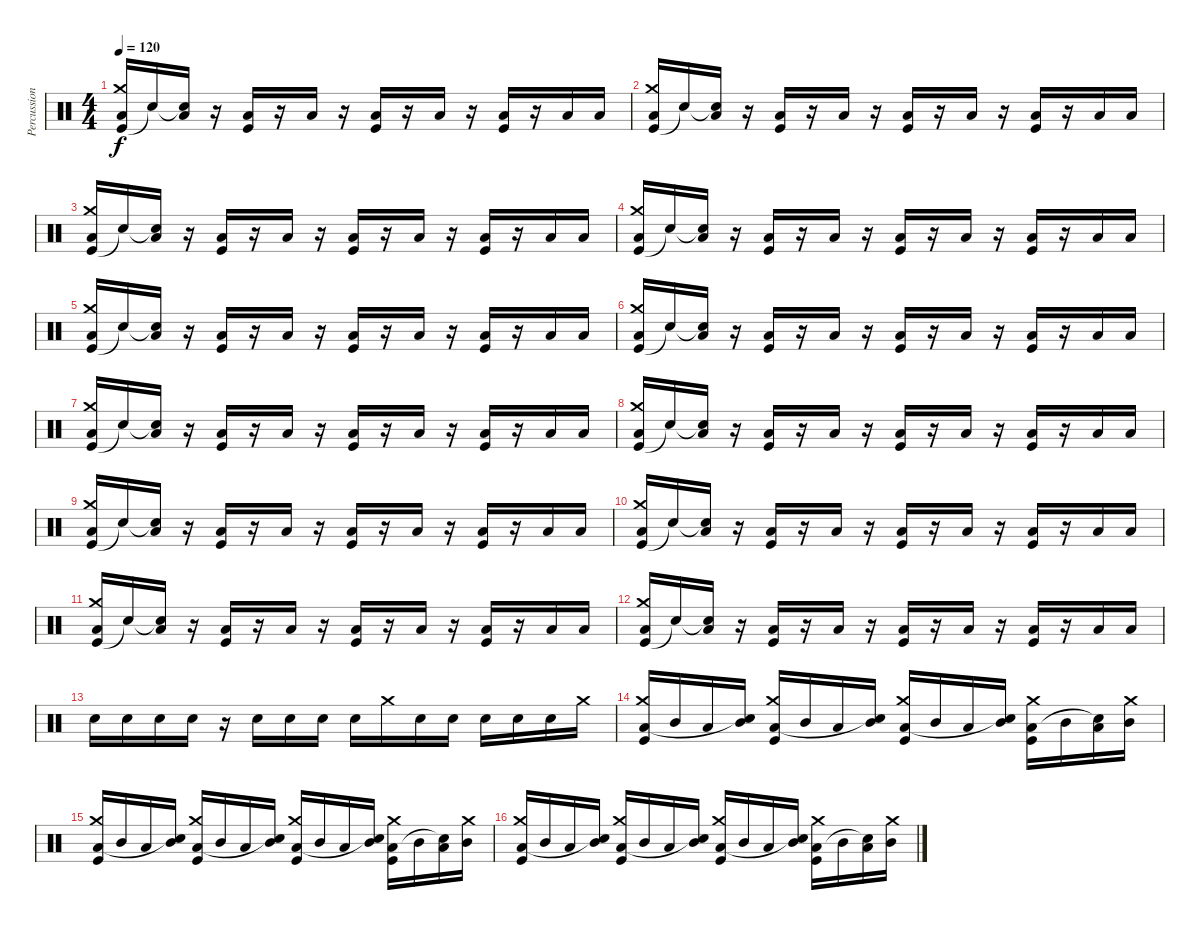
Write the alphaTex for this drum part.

\track ("Percussion" "Percussion") {instrument percussion}
\staff {score}
\articulation defaults
\ts (4 4)
\tempo 120
\clef neutral
\ks c
("Kick (hit)" "Crash medium (hit)" "Low Tom (hit)").16{dy f} "Snare (hit)"{t}.16 ("Snare (hit)"{t} "Low Tom (hit)").16 r.16 ("Kick (hit)" "Low Tom (hit)").16 r.16 "Low Tom (hit)".16 r.16 ("Kick (hit)" "Low Tom (hit)").16 r.16 "Low Tom (hit)".16 r.16 ("Kick (hit)" "Low Tom (hit)").16 r.16 "Low Tom (hit)".16 "Low Tom (hit)".16 |
("Kick (hit)" "Crash medium (hit)" "Low Tom (hit)").16 "Snare (hit)"{t}.16 ("Snare (hit)"{t} "Low Tom (hit)").16 r.16 ("Kick (hit)" "Low Tom (hit)").16 r.16 "Low Tom (hit)".16 r.16 ("Kick (hit)" "Low Tom (hit)").16 r.16 "Low Tom (hit)".16 r.16 ("Kick (hit)" "Low Tom (hit)").16 r.16 "Low Tom (hit)".16 "Low Tom (hit)".16 |
("Kick (hit)" "Crash medium (hit)" "Low Tom (hit)").16 "Snare (hit)"{t}.16 ("Snare (hit)"{t} "Low Tom (hit)").16 r.16 ("Kick (hit)" "Low Tom (hit)").16 r.16 "Low Tom (hit)".16 r.16 ("Kick (hit)" "Low Tom (hit)").16 r.16 "Low Tom (hit)".16 r.16 ("Kick (hit)" "Low Tom (hit)").16 r.16 "Low Tom (hit)".16 "Low Tom (hit)".16 |
("Kick (hit)" "Crash medium (hit)" "Low Tom (hit)").16 "Snare (hit)"{t}.16 ("Snare (hit)"{t} "Low Tom (hit)").16 r.16 ("Kick (hit)" "Low Tom (hit)").16 r.16 "Low Tom (hit)".16 r.16 ("Kick (hit)" "Low Tom (hit)").16 r.16 "Low Tom (hit)".16 r.16 ("Kick (hit)" "Low Tom (hit)").16 r.16 "Low Tom (hit)".16 "Low Tom (hit)".16 |
("Kick (hit)" "Crash medium (hit)" "Low Tom (hit)").16 "Snare (hit)"{t}.16 ("Snare (hit)"{t} "Low Tom (hit)").16 r.16 ("Kick (hit)" "Low Tom (hit)").16 r.16 "Low Tom (hit)".16 r.16 ("Kick (hit)" "Low Tom (hit)").16 r.16 "Low Tom (hit)".16 r.16 ("Kick (hit)" "Low Tom (hit)").16 r.16 "Low Tom (hit)".16 "Low Tom (hit)".16 |
("Kick (hit)" "Crash medium (hit)" "Low Tom (hit)").16 "Snare (hit)"{t}.16 ("Snare (hit)"{t} "Low Tom (hit)").16 r.16 ("Kick (hit)" "Low Tom (hit)").16 r.16 "Low Tom (hit)".16 r.16 ("Kick (hit)" "Low Tom (hit)").16 r.16 "Low Tom (hit)".16 r.16 ("Kick (hit)" "Low Tom (hit)").16 r.16 "Low Tom (hit)".16 "Low Tom (hit)".16 |
("Kick (hit)" "Crash medium (hit)" "Low Tom (hit)").16 "Snare (hit)"{t}.16 ("Snare (hit)"{t} "Low Tom (hit)").16 r.16 ("Kick (hit)" "Low Tom (hit)").16 r.16 "Low Tom (hit)".16 r.16 ("Kick (hit)" "Low Tom (hit)").16 r.16 "Low Tom (hit)".16 r.16 ("Kick (hit)" "Low Tom (hit)").16 r.16 "Low Tom (hit)".16 "Low Tom (hit)".16 |
("Kick (hit)" "Crash medium (hit)" "Low Tom (hit)").16 "Snare (hit)"{t}.16 ("Snare (hit)"{t} "Low Tom (hit)").16 r.16 ("Kick (hit)" "Low Tom (hit)").16 r.16 "Low Tom (hit)".16 r.16 ("Kick (hit)" "Low Tom (hit)").16 r.16 "Low Tom (hit)".16 r.16 ("Kick (hit)" "Low Tom (hit)").16 r.16 "Low Tom (hit)".16 "Low Tom (hit)".16 |
("Kick (hit)" "Crash medium (hit)" "Low Tom (hit)").16 "Snare (hit)"{t}.16 ("Snare (hit)"{t} "Low Tom (hit)").16 r.16 ("Kick (hit)" "Low Tom (hit)").16 r.16 "Low Tom (hit)".16 r.16 ("Kick (hit)" "Low Tom (hit)").16 r.16 "Low Tom (hit)".16 r.16 ("Kick (hit)" "Low Tom (hit)").16 r.16 "Low Tom (hit)".16 "Low Tom (hit)".16 |
("Kick (hit)" "Crash medium (hit)" "Low Tom (hit)").16 "Snare (hit)"{t}.16 ("Snare (hit)"{t} "Low Tom (hit)").16 r.16 ("Kick (hit)" "Low Tom (hit)").16 r.16 "Low Tom (hit)".16 r.16 ("Kick (hit)" "Low Tom (hit)").16 r.16 "Low Tom (hit)".16 r.16 ("Kick (hit)" "Low Tom (hit)").16 r.16 "Low Tom (hit)".16 "Low Tom (hit)".16 |
("Kick (hit)" "Crash medium (hit)" "Low Tom (hit)").16 "Snare (hit)"{t}.16 ("Snare (hit)"{t} "Low Tom (hit)").16 r.16 ("Kick (hit)" "Low Tom (hit)").16 r.16 "Low Tom (hit)".16 r.16 ("Kick (hit)" "Low Tom (hit)").16 r.16 "Low Tom (hit)".16 r.16 ("Kick (hit)" "Low Tom (hit)").16 r.16 "Low Tom (hit)".16 "Low Tom (hit)".16 |
("Kick (hit)" "Crash medium (hit)" "Low Tom (hit)").16 "Snare (hit)"{t}.16 ("Snare (hit)"{t} "Low Tom (hit)").16 r.16 ("Kick (hit)" "Low Tom (hit)").16 r.16 "Low Tom (hit)".16 r.16 ("Kick (hit)" "Low Tom (hit)").16 r.16 "Low Tom (hit)".16 r.16 ("Kick (hit)" "Low Tom (hit)").16 r.16 "Low Tom (hit)".16 "Low Tom (hit)".16 |
"Snare (hit) 2".16 "Snare (hit) 2".16 "Snare (hit) 2".16 "Snare (hit) 2".16 r.16 "Snare (hit) 2".16 "Snare (hit) 2".16 "Snare (hit) 2".16 "Snare (hit) 2".16 "Crash medium (hit)".16 "Snare (hit) 2".16 "Snare (hit) 2".16 "Snare (hit) 2".16 "Snare (hit) 2".16 "Snare (hit) 2".16 "Crash medium (hit)".16 |
("Kick (hit)" "Low Tom (hit)" "Crash medium (hit)").16 "Mid Tom (hit)".16 "Low Tom (hit)".16 ("Mid Tom (hit)" "Snare (hit)"{t}).16 ("Kick (hit)" "Low Tom (hit)" "Crash medium (hit)").16 "Mid Tom (hit)".16 "Low Tom (hit)".16 ("Mid Tom (hit)" "Snare (hit)"{t}).16 ("Kick (hit)" "Low Tom (hit)" "Crash medium (hit)").16 "Mid Tom (hit)".16 "Low Tom (hit)".16 ("Mid Tom (hit)" "Snare (hit)"{t}).16 ("Kick (hit)" "Low Tom (hit)" "Crash medium (hit)").16 "Mid Tom (hit)".16 ("Low Tom (hit)" "Snare (hit)"{t}).16 ("Mid Tom (hit)" "Crash medium (hit)").16 |
("Kick (hit)" "Low Tom (hit)" "Crash medium (hit)").16 "Mid Tom (hit)".16 "Low Tom (hit)".16 ("Mid Tom (hit)" "Snare (hit)"{t}).16 ("Kick (hit)" "Low Tom (hit)" "Crash medium (hit)").16 "Mid Tom (hit)".16 "Low Tom (hit)".16 ("Mid Tom (hit)" "Snare (hit)"{t}).16 ("Kick (hit)" "Low Tom (hit)" "Crash medium (hit)").16 "Mid Tom (hit)".16 "Low Tom (hit)".16 ("Mid Tom (hit)" "Snare (hit)"{t}).16 ("Kick (hit)" "Low Tom (hit)" "Crash medium (hit)").16 "Mid Tom (hit)".16 ("Low Tom (hit)" "Snare (hit)"{t}).16 ("Mid Tom (hit)" "Crash medium (hit)").16 |
("Kick (hit)" "Low Tom (hit)" "Crash medium (hit)").16 "Mid Tom (hit)".16 "Low Tom (hit)".16 ("Mid Tom (hit)" "Snare (hit)"{t}).16 ("Kick (hit)" "Low Tom (hit)" "Crash medium (hit)").16 "Mid Tom (hit)".16 "Low Tom (hit)".16 ("Mid Tom (hit)" "Snare (hit)"{t}).16 ("Kick (hit)" "Low Tom (hit)" "Crash medium (hit)").16 "Mid Tom (hit)".16 "Low Tom (hit)".16 ("Mid Tom (hit)" "Snare (hit)"{t}).16 ("Kick (hit)" "Low Tom (hit)" "Crash medium (hit)").16 "Mid Tom (hit)".16 ("Low Tom (hit)" "Snare (hit)"{t}).16 ("Mid Tom (hit)" "Crash medium (hit)").16
